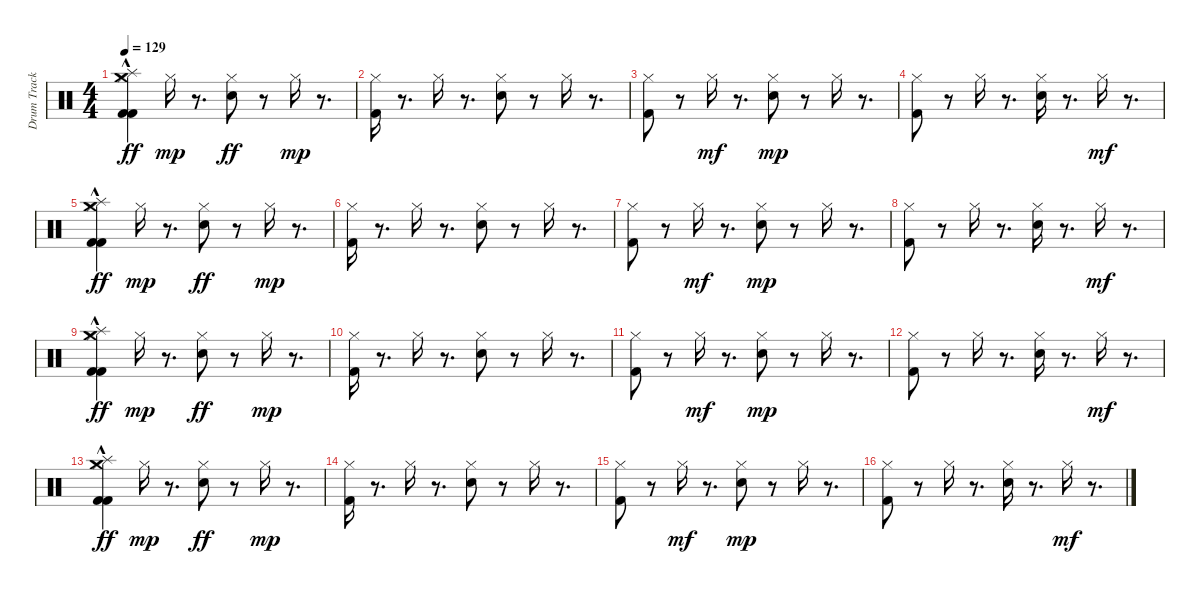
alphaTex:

\track ("Drum Track 1" "Drum Track") {instrument percussion}
\staff {score}
\articulation defaults
\ts (4 4)
\tempo 129
\clef neutral
\ks c
("Kick (hit) 2"{hac} "Hi-Hat (closed)" "Crash medium (hit)"{hac} "Splash (hit)"{hac} "Kick (hit) 2"{hac}).4{dy ff} "Hi-Hat (closed)".16{dy mp} r.8{d} ("Hi-Hat (closed)" "Snare (hit) 2").8{dy ff} r.8 "Hi-Hat (closed)".16{dy mp} r.8{d} |
("Kick (hit) 2" "Hi-Hat (closed)").16 r.8{d} "Hi-Hat (closed)".16 r.8{d} ("Snare (hit) 2" "Hi-Hat (closed)").8 r.8 "Hi-Hat (closed)".16 r.8{d} |
("Kick (hit) 2" "Hi-Hat (closed)").8 r.8 "Hi-Hat (closed)".16{dy mf} r.8{d} ("Hi-Hat (closed)" "Snare (hit) 2").8{dy mp} r.8 "Hi-Hat (closed)".16 r.8{d} |
("Hi-Hat (closed)" "Kick (hit) 2").8 r.8 "Hi-Hat (closed)".16 r.8{d} ("Hi-Hat (closed)" "Snare (hit) 2").16 r.8{d} "Hi-Hat (closed)".16{dy mf} r.8{d} |
("Kick (hit) 2" "Hi-Hat (closed)" "Crash medium (hit)"{hac} "Splash (hit)"{hac} "Kick (hit) 2"{hac}).4{dy ff} "Hi-Hat (closed)".16{dy mp} r.8{d} ("Hi-Hat (closed)" "Snare (hit) 2").8{dy ff} r.8 "Hi-Hat (closed)".16{dy mp} r.8{d} |
("Kick (hit) 2" "Hi-Hat (closed)").16 r.8{d} "Hi-Hat (closed)".16 r.8{d} ("Snare (hit) 2" "Hi-Hat (closed)").8 r.8 "Hi-Hat (closed)".16 r.8{d} |
("Kick (hit) 2" "Hi-Hat (closed)").8 r.8 "Hi-Hat (closed)".16{dy mf} r.8{d} ("Hi-Hat (closed)" "Snare (hit) 2").8{dy mp} r.8 "Hi-Hat (closed)".16 r.8{d} |
("Hi-Hat (closed)" "Kick (hit) 2").8 r.8 "Hi-Hat (closed)".16 r.8{d} ("Hi-Hat (closed)" "Snare (hit) 2").16 r.8{d} "Hi-Hat (closed)".16{dy mf} r.8{d} |
("Kick (hit) 2" "Hi-Hat (closed)" "Crash medium (hit)"{hac} "Splash (hit)"{hac} "Kick (hit) 2"{hac}).4{dy ff} "Hi-Hat (closed)".16{dy mp} r.8{d} ("Hi-Hat (closed)" "Snare (hit) 2").8{dy ff} r.8 "Hi-Hat (closed)".16{dy mp} r.8{d} |
("Kick (hit) 2" "Hi-Hat (closed)").16 r.8{d} "Hi-Hat (closed)".16 r.8{d} ("Snare (hit) 2" "Hi-Hat (closed)").8 r.8 "Hi-Hat (closed)".16 r.8{d} |
("Kick (hit) 2" "Hi-Hat (closed)").8 r.8 "Hi-Hat (closed)".16{dy mf} r.8{d} ("Hi-Hat (closed)" "Snare (hit) 2").8{dy mp} r.8 "Hi-Hat (closed)".16 r.8{d} |
("Hi-Hat (closed)" "Kick (hit) 2").8 r.8 "Hi-Hat (closed)".16 r.8{d} ("Hi-Hat (closed)" "Snare (hit) 2").16 r.8{d} "Hi-Hat (closed)".16{dy mf} r.8{d} |
("Kick (hit) 2" "Hi-Hat (closed)" "Crash medium (hit)"{hac} "Splash (hit)"{hac} "Kick (hit) 2"{hac}).4{dy ff} "Hi-Hat (closed)".16{dy mp} r.8{d} ("Hi-Hat (closed)" "Snare (hit) 2").8{dy ff} r.8 "Hi-Hat (closed)".16{dy mp} r.8{d} |
("Kick (hit) 2" "Hi-Hat (closed)").16 r.8{d} "Hi-Hat (closed)".16 r.8{d} ("Snare (hit) 2" "Hi-Hat (closed)").8 r.8 "Hi-Hat (closed)".16 r.8{d} |
("Kick (hit) 2" "Hi-Hat (closed)").8 r.8 "Hi-Hat (closed)".16{dy mf} r.8{d} ("Hi-Hat (closed)" "Snare (hit) 2").8{dy mp} r.8 "Hi-Hat (closed)".16 r.8{d} |
("Hi-Hat (closed)" "Kick (hit) 2").8 r.8 "Hi-Hat (closed)".16 r.8{d} ("Hi-Hat (closed)" "Snare (hit) 2").16 r.8{d} "Hi-Hat (closed)".16{dy mf} r.8{d}
